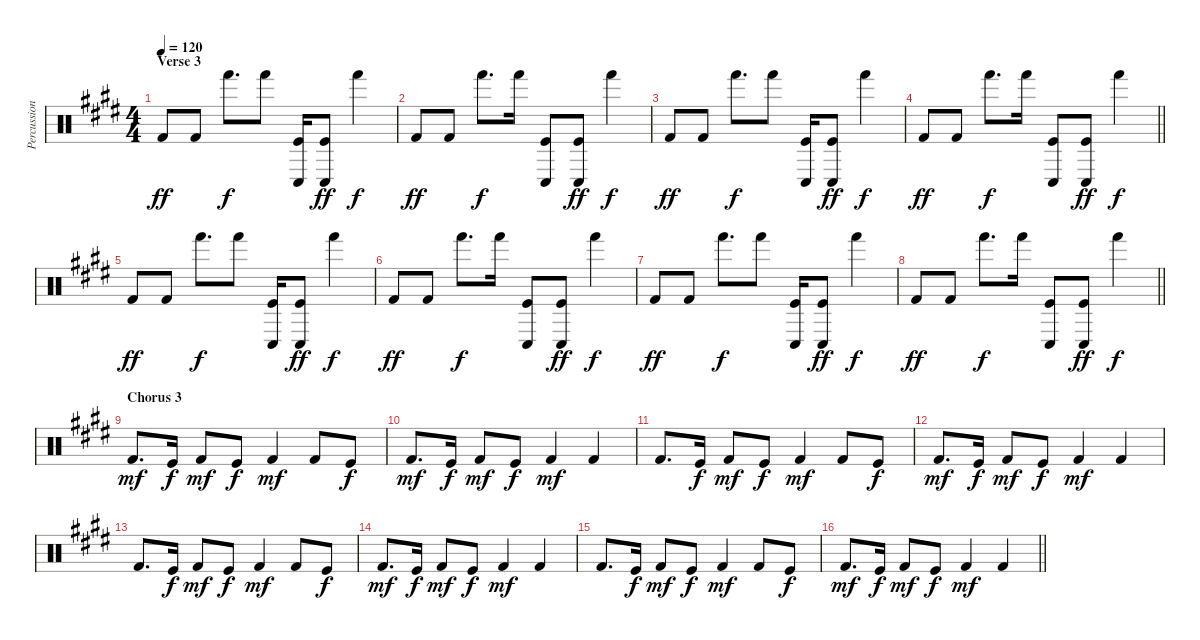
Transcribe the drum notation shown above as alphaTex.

\track ("Percussion" "Percussion") {instrument percussion}
\staff {score}
\articulation defaults
\ts (4 4)
\section ("" "Verse 3")
\tempo 120
\clef neutral
\ks e "Kick (hit) 2".8{dy ff} "Kick (hit) 2".8 "Hand (hit)".8{d dy f} "Hand (hit)".8
("Conga low (hit)" "Kick (hit)").16 ("Conga low (hit)" "Kick (hit)").8{dy ff} "Hand (hit)".4{dy f} |
"Kick (hit) 2".8{dy ff} "Kick (hit) 2".8 "Hand (hit)".8{d dy f} "Hand (hit)".16 ("Conga low (hit)" "Kick (hit)").8 ("Conga low (hit)" "Kick (hit)").8{dy ff} "Hand (hit)".4{dy f} |
"Kick (hit) 2".8{dy ff} "Kick (hit) 2".8 "Hand (hit)".8{d dy f} "Hand (hit)".8 ("Conga low (hit)" "Kick (hit)").16 ("Conga low (hit)" "Kick (hit)").8{dy ff} "Hand (hit)".4{dy f} |
\barLineRight lightlight "Kick (hit) 2".8{dy ff} "Kick (hit) 2".8 "Hand (hit)".8{d dy f} "Hand (hit)".16
("Conga low (hit)" "Kick (hit)").8 ("Conga low (hit)" "Kick (hit)").8{dy ff} "Hand (hit)".4{dy f} |
"Kick (hit) 2".8{dy ff} "Kick (hit) 2".8 "Hand (hit)".8{d dy f} "Hand (hit)".8 ("Conga low (hit)" "Kick (hit)").16 ("Conga low (hit)" "Kick (hit)").8{dy ff} "Hand (hit)".4{dy f} |
"Kick (hit) 2".8{dy ff} "Kick (hit) 2".8 "Hand (hit)".8{d dy f} "Hand (hit)".16 ("Conga low (hit)" "Kick (hit)").8 ("Conga low (hit)" "Kick (hit)").8{dy ff} "Hand (hit)".4{dy f} |
"Kick (hit) 2".8{dy ff} "Kick (hit) 2".8 "Hand (hit)".8{d dy f} "Hand (hit)".8 ("Conga low (hit)" "Kick (hit)").16 ("Conga low (hit)" "Kick (hit)").8{dy ff} "Hand (hit)".4{dy f} |
\barLineRight lightlight "Kick (hit) 2".8{dy ff} "Kick (hit) 2".8 "Hand (hit)".8{d dy f} "Hand (hit)".16
("Conga low (hit)" "Kick (hit)").8 ("Conga low (hit)" "Kick (hit)").8{dy ff} "Hand (hit)".4{dy f} |
\section ("" "Chorus 3")
"Kick (hit) 2".8{d dy mf} "Kick (hit)".16{dy f} "Kick (hit) 2".8{dy mf} "Kick (hit)".8{dy f} "Kick (hit) 2".4{dy mf} "Kick (hit) 2".8 "Kick (hit)".8{dy f} |
"Kick (hit) 2".8{d dy mf} "Kick (hit)".16{dy f} "Kick (hit) 2".8{dy mf} "Kick (hit)".8{dy f} "Kick (hit) 2".4{dy mf} "Kick (hit) 2".4 |
"Kick (hit) 2".8{d} "Kick (hit)".16{dy f} "Kick (hit) 2".8{dy mf} "Kick (hit)".8{dy f} "Kick (hit) 2".4{dy mf} "Kick (hit) 2".8 "Kick (hit)".8{dy f} |
"Kick (hit) 2".8{d dy mf} "Kick (hit)".16{dy f} "Kick (hit) 2".8{dy mf} "Kick (hit)".8{dy f} "Kick (hit) 2".4{dy mf} "Kick (hit) 2".4 |
"Kick (hit) 2".8{d} "Kick (hit)".16{dy f} "Kick (hit) 2".8{dy mf} "Kick (hit)".8{dy f} "Kick (hit) 2".4{dy mf} "Kick (hit) 2".8 "Kick (hit)".8{dy f} |
"Kick (hit) 2".8{d dy mf} "Kick (hit)".16{dy f} "Kick (hit) 2".8{dy mf} "Kick (hit)".8{dy f} "Kick (hit) 2".4{dy mf} "Kick (hit) 2".4 |
"Kick (hit) 2".8{d} "Kick (hit)".16{dy f} "Kick (hit) 2".8{dy mf} "Kick (hit)".8{dy f} "Kick (hit) 2".4{dy mf} "Kick (hit) 2".8 "Kick (hit)".8{dy f} |
\barLineRight lightlight "Kick (hit) 2".8{d dy mf} "Kick (hit)".16{dy f} "Kick (hit) 2".8{dy mf} "Kick (hit)".8{dy f} "Kick (hit) 2".4{dy mf} "Kick (hit) 2".4
